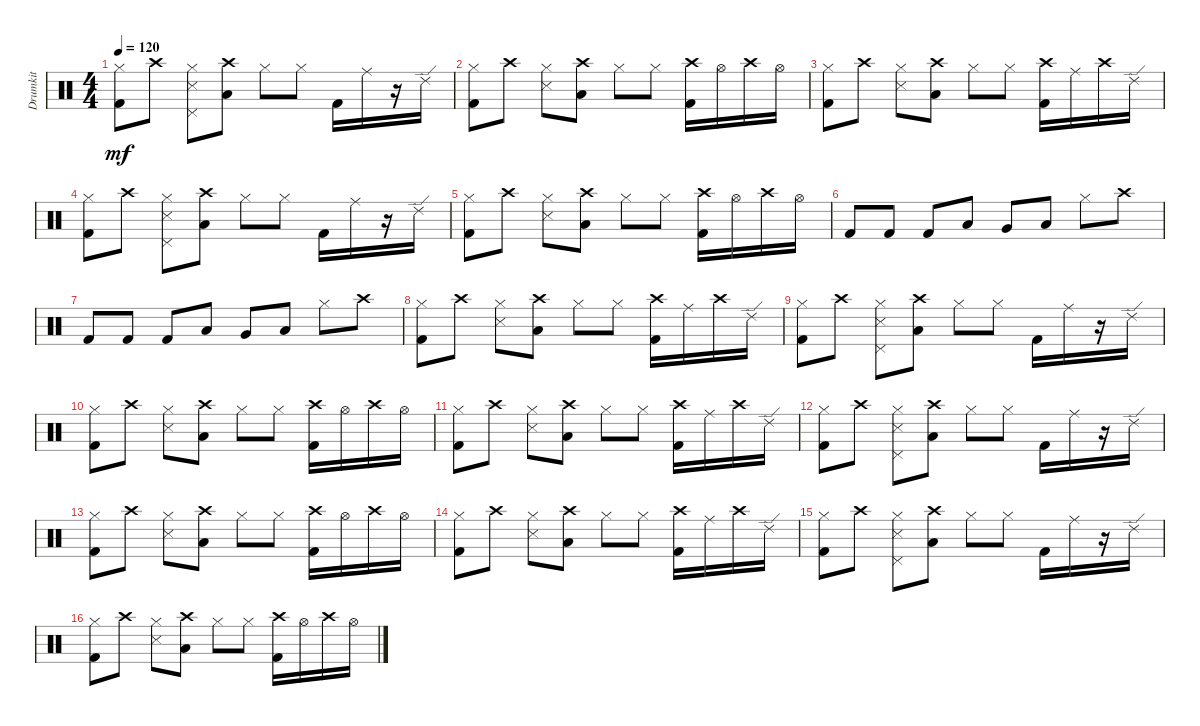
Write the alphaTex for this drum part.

\track ("Drumkit" "Drumkit") {instrument percussion}
\staff {score}
\articulation defaults
\ts (4 4)
\tempo 120
\clef neutral
\ks c
("Hi-Hat (closed)" "Kick (hit) 2").8{dy mf} "Crash high (hit)".8 ("Hi-Hat (closed)" "Snare (side stick) 3" "Pedal Hi-Hat (hit)").8 ("Crash high (hit)" "Low Floor Tom (hit)").8 "Hi-Hat (closed)".8 "Hi-Hat (closed)".8 "Kick (hit) 2".16 "Ride (middle)".16 r.16 "Ride (edge) 2".16 |
("Hi-Hat (closed)" "Kick (hit) 2").8 "Crash high (hit)".8 ("Hi-Hat (closed)" "Snare (side stick) 3").8 ("Crash high (hit)" "Low Floor Tom (hit)").8 "Hi-Hat (closed)".8 "Hi-Hat (closed)".8 ("Crash high (hit)" "Kick (hit) 2").16 "Hi-Hat (open)".16 "Crash high (hit)".16 "Hi-Hat (open)".16 |
("Hi-Hat (closed)" "Kick (hit) 2").8 "Crash high (hit)".8 ("Hi-Hat (closed)" "Snare (side stick) 3").8 ("Crash high (hit)" "Low Floor Tom (hit)").8 "Hi-Hat (closed)".8 "Hi-Hat (closed)".8 ("Crash high (hit)" "Kick (hit) 2").16 "Ride (middle)".16 "Crash high (hit)".16 "Ride (edge) 2".16 |
("Hi-Hat (closed)" "Kick (hit) 2").8 "Crash high (hit)".8 ("Hi-Hat (closed)" "Snare (side stick) 3" "Pedal Hi-Hat (hit)").8 ("Crash high (hit)" "Low Floor Tom (hit)").8 "Hi-Hat (closed)".8 "Hi-Hat (closed)".8 "Kick (hit) 2".16 "Ride (middle)".16 r.16 "Ride (edge) 2".16 |
("Hi-Hat (closed)" "Kick (hit) 2").8 "Crash high (hit)".8 ("Hi-Hat (closed)" "Snare (side stick) 3").8 ("Crash high (hit)" "Low Floor Tom (hit)").8 "Hi-Hat (closed)".8 "Hi-Hat (closed)".8 ("Crash high (hit)" "Kick (hit) 2").16 "Hi-Hat (open)".16 "Crash high (hit)".16 "Hi-Hat (open)".16 |
"Kick (hit) 2".8 "Kick (hit) 2".8 "Kick (hit) 2".8 "Low Floor Tom (hit)".8 "Very Low Tom (hit)".8 "Low Tom (hit)".8 "Hi-Hat (closed)".8 "Crash high (hit)".8 |
"Kick (hit) 2".8 "Kick (hit) 2".8 "Kick (hit) 2".8 "Low Floor Tom (hit)".8 "Very Low Tom (hit)".8 "Low Tom (hit)".8 "Hi-Hat (closed)".8 "Crash high (hit)".8 |
("Hi-Hat (closed)" "Kick (hit) 2").8 "Crash high (hit)".8 ("Hi-Hat (closed)" "Snare (side stick) 3").8 ("Crash high (hit)" "Low Floor Tom (hit)").8 "Hi-Hat (closed)".8 "Hi-Hat (closed)".8 ("Crash high (hit)" "Kick (hit) 2").16 "Ride (middle)".16 "Crash high (hit)".16 "Ride (edge) 2".16 |
("Hi-Hat (closed)" "Kick (hit) 2").8 "Crash high (hit)".8 ("Hi-Hat (closed)" "Snare (side stick) 3" "Pedal Hi-Hat (hit)").8 ("Crash high (hit)" "Low Floor Tom (hit)").8 "Hi-Hat (closed)".8 "Hi-Hat (closed)".8 "Kick (hit) 2".16 "Ride (middle)".16 r.16 "Ride (edge) 2".16 |
("Hi-Hat (closed)" "Kick (hit) 2").8 "Crash high (hit)".8 ("Hi-Hat (closed)" "Snare (side stick) 3").8 ("Crash high (hit)" "Low Floor Tom (hit)").8 "Hi-Hat (closed)".8 "Hi-Hat (closed)".8 ("Crash high (hit)" "Kick (hit) 2").16 "Hi-Hat (open)".16 "Crash high (hit)".16 "Hi-Hat (open)".16 |
("Hi-Hat (closed)" "Kick (hit) 2").8 "Crash high (hit)".8 ("Hi-Hat (closed)" "Snare (side stick) 3").8 ("Crash high (hit)" "Low Floor Tom (hit)").8 "Hi-Hat (closed)".8 "Hi-Hat (closed)".8 ("Crash high (hit)" "Kick (hit) 2").16 "Ride (middle)".16 "Crash high (hit)".16 "Ride (edge) 2".16 |
("Hi-Hat (closed)" "Kick (hit) 2").8 "Crash high (hit)".8 ("Hi-Hat (closed)" "Snare (side stick) 3" "Pedal Hi-Hat (hit)").8 ("Crash high (hit)" "Low Floor Tom (hit)").8 "Hi-Hat (closed)".8 "Hi-Hat (closed)".8 "Kick (hit) 2".16 "Ride (middle)".16 r.16 "Ride (edge) 2".16 |
("Hi-Hat (closed)" "Kick (hit) 2").8 "Crash high (hit)".8 ("Hi-Hat (closed)" "Snare (side stick) 3").8 ("Crash high (hit)" "Low Floor Tom (hit)").8 "Hi-Hat (closed)".8 "Hi-Hat (closed)".8 ("Crash high (hit)" "Kick (hit) 2").16 "Hi-Hat (open)".16 "Crash high (hit)".16 "Hi-Hat (open)".16 |
("Hi-Hat (closed)" "Kick (hit) 2").8 "Crash high (hit)".8 ("Hi-Hat (closed)" "Snare (side stick) 3").8 ("Crash high (hit)" "Low Floor Tom (hit)").8 "Hi-Hat (closed)".8 "Hi-Hat (closed)".8 ("Crash high (hit)" "Kick (hit) 2").16 "Ride (middle)".16 "Crash high (hit)".16 "Ride (edge) 2".16 |
("Hi-Hat (closed)" "Kick (hit) 2").8 "Crash high (hit)".8 ("Hi-Hat (closed)" "Snare (side stick) 3" "Pedal Hi-Hat (hit)").8 ("Crash high (hit)" "Low Floor Tom (hit)").8 "Hi-Hat (closed)".8 "Hi-Hat (closed)".8 "Kick (hit) 2".16 "Ride (middle)".16 r.16 "Ride (edge) 2".16 |
("Hi-Hat (closed)" "Kick (hit) 2").8 "Crash high (hit)".8 ("Hi-Hat (closed)" "Snare (side stick) 3").8 ("Crash high (hit)" "Low Floor Tom (hit)").8 "Hi-Hat (closed)".8 "Hi-Hat (closed)".8 ("Crash high (hit)" "Kick (hit) 2").16 "Hi-Hat (open)".16 "Crash high (hit)".16 "Hi-Hat (open)".16
